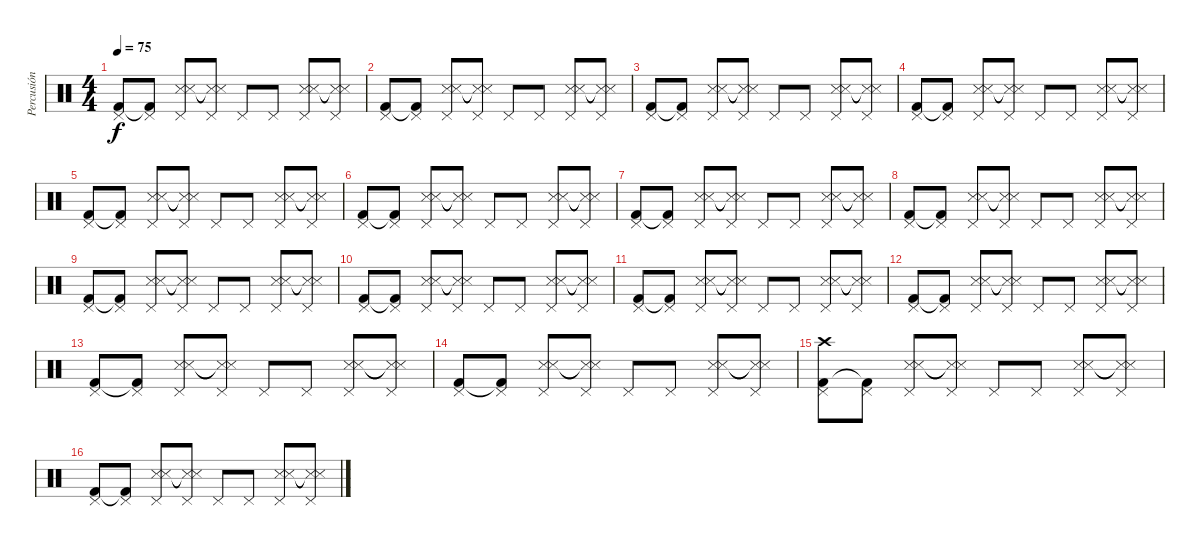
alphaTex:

\track ("Percusión" "Percusión") {instrument percussion}
\staff {score}
\articulation defaults
\ts (4 4)
\tempo 75
\clef neutral
\ks c
("Kick (hit) 2" "Pedal Hi-Hat (hit)").8{dy f} ("Kick (hit) 2"{t} "Pedal Hi-Hat (hit)").8 ("Metronome (hit)" "Snare (side stick) 3" "Pedal Hi-Hat (hit)").8 ("Metronome (hit)"{t} "Snare (side stick) 3"{t} "Pedal Hi-Hat (hit)").8 "Pedal Hi-Hat (hit)".8 "Pedal Hi-Hat (hit)".8 ("Metronome (hit)" "Snare (side stick) 3" "Pedal Hi-Hat (hit)").8 ("Metronome (hit)"{t} "Snare (side stick) 3"{t} "Pedal Hi-Hat (hit)").8 |
("Kick (hit) 2" "Pedal Hi-Hat (hit)").8 ("Kick (hit) 2"{t} "Pedal Hi-Hat (hit)").8 ("Metronome (hit)" "Snare (side stick) 3" "Pedal Hi-Hat (hit)").8 ("Metronome (hit)"{t} "Snare (side stick) 3"{t} "Pedal Hi-Hat (hit)").8 "Pedal Hi-Hat (hit)".8 "Pedal Hi-Hat (hit)".8 ("Metronome (hit)" "Snare (side stick) 3" "Pedal Hi-Hat (hit)").8 ("Metronome (hit)"{t} "Snare (side stick) 3"{t} "Pedal Hi-Hat (hit)").8 |
("Kick (hit) 2" "Pedal Hi-Hat (hit)").8 ("Kick (hit) 2"{t} "Pedal Hi-Hat (hit)").8 ("Metronome (hit)" "Snare (side stick) 3" "Pedal Hi-Hat (hit)").8 ("Metronome (hit)"{t} "Snare (side stick) 3"{t} "Pedal Hi-Hat (hit)").8 "Pedal Hi-Hat (hit)".8 "Pedal Hi-Hat (hit)".8 ("Metronome (hit)" "Snare (side stick) 3" "Pedal Hi-Hat (hit)").8 ("Metronome (hit)"{t} "Snare (side stick) 3"{t} "Pedal Hi-Hat (hit)").8 |
("Kick (hit) 2" "Pedal Hi-Hat (hit)").8 ("Kick (hit) 2"{t} "Pedal Hi-Hat (hit)").8 ("Metronome (hit)" "Snare (side stick) 3" "Pedal Hi-Hat (hit)").8 ("Metronome (hit)"{t} "Snare (side stick) 3"{t} "Pedal Hi-Hat (hit)").8 "Pedal Hi-Hat (hit)".8 "Pedal Hi-Hat (hit)".8 ("Metronome (hit)" "Snare (side stick) 3" "Pedal Hi-Hat (hit)").8 ("Metronome (hit)"{t} "Snare (side stick) 3"{t} "Pedal Hi-Hat (hit)").8 |
("Kick (hit) 2" "Pedal Hi-Hat (hit)").8 ("Kick (hit) 2"{t} "Pedal Hi-Hat (hit)").8 ("Metronome (hit)" "Snare (side stick) 3" "Pedal Hi-Hat (hit)").8 ("Metronome (hit)"{t} "Snare (side stick) 3"{t} "Pedal Hi-Hat (hit)").8 "Pedal Hi-Hat (hit)".8 "Pedal Hi-Hat (hit)".8 ("Metronome (hit)" "Snare (side stick) 3" "Pedal Hi-Hat (hit)").8 ("Metronome (hit)"{t} "Snare (side stick) 3"{t} "Pedal Hi-Hat (hit)").8 |
("Kick (hit) 2" "Pedal Hi-Hat (hit)").8 ("Kick (hit) 2"{t} "Pedal Hi-Hat (hit)").8 ("Metronome (hit)" "Snare (side stick) 3" "Pedal Hi-Hat (hit)").8 ("Metronome (hit)"{t} "Snare (side stick) 3"{t} "Pedal Hi-Hat (hit)").8 "Pedal Hi-Hat (hit)".8 "Pedal Hi-Hat (hit)".8 ("Metronome (hit)" "Snare (side stick) 3" "Pedal Hi-Hat (hit)").8 ("Metronome (hit)"{t} "Snare (side stick) 3"{t} "Pedal Hi-Hat (hit)").8 |
("Kick (hit) 2" "Pedal Hi-Hat (hit)").8 ("Kick (hit) 2"{t} "Pedal Hi-Hat (hit)").8 ("Metronome (hit)" "Snare (side stick) 3" "Pedal Hi-Hat (hit)").8 ("Metronome (hit)"{t} "Snare (side stick) 3"{t} "Pedal Hi-Hat (hit)").8 "Pedal Hi-Hat (hit)".8 "Pedal Hi-Hat (hit)".8 ("Metronome (hit)" "Snare (side stick) 3" "Pedal Hi-Hat (hit)").8 ("Metronome (hit)"{t} "Snare (side stick) 3"{t} "Pedal Hi-Hat (hit)").8 |
("Kick (hit) 2" "Pedal Hi-Hat (hit)").8 ("Kick (hit) 2"{t} "Pedal Hi-Hat (hit)").8 ("Metronome (hit)" "Snare (side stick) 3" "Pedal Hi-Hat (hit)").8 ("Metronome (hit)"{t} "Snare (side stick) 3"{t} "Pedal Hi-Hat (hit)").8 "Pedal Hi-Hat (hit)".8 "Pedal Hi-Hat (hit)".8 ("Metronome (hit)" "Snare (side stick) 3" "Pedal Hi-Hat (hit)").8 ("Metronome (hit)"{t} "Snare (side stick) 3"{t} "Pedal Hi-Hat (hit)").8 |
("Kick (hit) 2" "Pedal Hi-Hat (hit)").8 ("Kick (hit) 2"{t} "Pedal Hi-Hat (hit)").8 ("Metronome (hit)" "Snare (side stick) 3" "Pedal Hi-Hat (hit)").8 ("Metronome (hit)"{t} "Snare (side stick) 3"{t} "Pedal Hi-Hat (hit)").8 "Pedal Hi-Hat (hit)".8 "Pedal Hi-Hat (hit)".8 ("Metronome (hit)" "Snare (side stick) 3" "Pedal Hi-Hat (hit)").8 ("Metronome (hit)"{t} "Snare (side stick) 3"{t} "Pedal Hi-Hat (hit)").8 |
("Kick (hit) 2" "Pedal Hi-Hat (hit)").8 ("Kick (hit) 2"{t} "Pedal Hi-Hat (hit)").8 ("Metronome (hit)" "Snare (side stick) 3" "Pedal Hi-Hat (hit)").8 ("Metronome (hit)"{t} "Snare (side stick) 3"{t} "Pedal Hi-Hat (hit)").8 "Pedal Hi-Hat (hit)".8 "Pedal Hi-Hat (hit)".8 ("Metronome (hit)" "Snare (side stick) 3" "Pedal Hi-Hat (hit)").8 ("Metronome (hit)"{t} "Snare (side stick) 3"{t} "Pedal Hi-Hat (hit)").8 |
("Kick (hit) 2" "Pedal Hi-Hat (hit)").8 ("Kick (hit) 2"{t} "Pedal Hi-Hat (hit)").8 ("Metronome (hit)" "Snare (side stick) 3" "Pedal Hi-Hat (hit)").8 ("Metronome (hit)"{t} "Snare (side stick) 3"{t} "Pedal Hi-Hat (hit)").8 "Pedal Hi-Hat (hit)".8 "Pedal Hi-Hat (hit)".8 ("Metronome (hit)" "Snare (side stick) 3" "Pedal Hi-Hat (hit)").8 ("Metronome (hit)"{t} "Snare (side stick) 3"{t} "Pedal Hi-Hat (hit)").8 |
("Kick (hit) 2" "Pedal Hi-Hat (hit)").8 ("Kick (hit) 2"{t} "Pedal Hi-Hat (hit)").8 ("Metronome (hit)" "Snare (side stick) 3" "Pedal Hi-Hat (hit)").8 ("Metronome (hit)"{t} "Snare (side stick) 3"{t} "Pedal Hi-Hat (hit)").8 "Pedal Hi-Hat (hit)".8 "Pedal Hi-Hat (hit)".8 ("Metronome (hit)" "Snare (side stick) 3" "Pedal Hi-Hat (hit)").8 ("Metronome (hit)"{t} "Snare (side stick) 3"{t} "Pedal Hi-Hat (hit)").8 |
("Kick (hit) 2" "Pedal Hi-Hat (hit)").8 ("Kick (hit) 2"{t} "Pedal Hi-Hat (hit)").8 ("Metronome (hit)" "Snare (side stick) 3" "Pedal Hi-Hat (hit)").8 ("Metronome (hit)"{t} "Snare (side stick) 3"{t} "Pedal Hi-Hat (hit)").8 "Pedal Hi-Hat (hit)".8 "Pedal Hi-Hat (hit)".8 ("Metronome (hit)" "Snare (side stick) 3" "Pedal Hi-Hat (hit)").8 ("Metronome (hit)"{t} "Snare (side stick) 3"{t} "Pedal Hi-Hat (hit)").8 |
("Kick (hit) 2" "Pedal Hi-Hat (hit)").8 ("Kick (hit) 2"{t} "Pedal Hi-Hat (hit)").8 ("Metronome (hit)" "Snare (side stick) 3" "Pedal Hi-Hat (hit)").8 ("Metronome (hit)"{t} "Snare (side stick) 3"{t} "Pedal Hi-Hat (hit)").8 "Pedal Hi-Hat (hit)".8 "Pedal Hi-Hat (hit)".8 ("Metronome (hit)" "Snare (side stick) 3" "Pedal Hi-Hat (hit)").8 ("Metronome (hit)"{t} "Snare (side stick) 3"{t} "Pedal Hi-Hat (hit)").8 |
("Kick (hit) 2" "Pedal Hi-Hat (hit)" "Crash high (hit)").8 ("Kick (hit) 2"{t} "Pedal Hi-Hat (hit)").8 ("Metronome (hit)" "Snare (side stick) 3" "Pedal Hi-Hat (hit)").8 ("Metronome (hit)"{t} "Snare (side stick) 3"{t} "Pedal Hi-Hat (hit)").8 "Pedal Hi-Hat (hit)".8 "Pedal Hi-Hat (hit)".8 ("Metronome (hit)" "Snare (side stick) 3" "Pedal Hi-Hat (hit)").8 ("Metronome (hit)"{t} "Snare (side stick) 3"{t} "Pedal Hi-Hat (hit)").8 |
("Kick (hit) 2" "Pedal Hi-Hat (hit)").8 ("Kick (hit) 2"{t} "Pedal Hi-Hat (hit)").8 ("Metronome (hit)" "Snare (side stick) 3" "Pedal Hi-Hat (hit)").8 ("Metronome (hit)"{t} "Snare (side stick) 3"{t} "Pedal Hi-Hat (hit)").8 "Pedal Hi-Hat (hit)".8 "Pedal Hi-Hat (hit)".8 ("Metronome (hit)" "Snare (side stick) 3" "Pedal Hi-Hat (hit)").8 ("Metronome (hit)"{t} "Snare (side stick) 3"{t} "Pedal Hi-Hat (hit)").8
